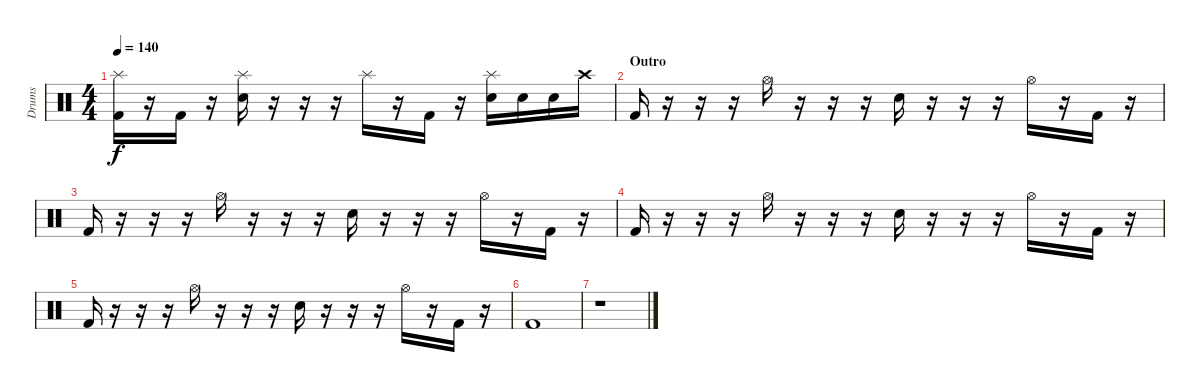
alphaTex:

\track ("Drums" "Drums") {instrument percussion}
\staff {score}
\articulation defaults
\ts (4 4)
\tempo 140
\clef neutral
\ks c
("Kick (hit) 2" "Splash (hit)").16{dy f} r.16 "Kick (hit) 2".16 r.16 ("Snare (hit) 2" "Splash (hit)").16 r.16 r.16 r.16 "Splash (hit)".16 r.16 "Kick (hit) 2".16 r.16 ("Snare (hit) 2" "Splash (hit)").16 "Snare (hit) 2".16 "Snare (hit) 2".16 "Crash high (hit)".16 |
\section ("" "Outro")
"Kick (hit) 2".16 r.16 r.16 r.16 "Hi-Hat (open)".16 r.16 r.16 r.16 "Electric Snare (hit)".16 r.16 r.16 r.16 "Hi-Hat (open)".16 r.16 "Kick (hit) 2".16 r.16 |
"Kick (hit) 2".16 r.16 r.16 r.16 "Hi-Hat (open)".16 r.16 r.16 r.16 "Electric Snare (hit)".16 r.16 r.16 r.16 "Hi-Hat (open)".16 r.16 "Kick (hit) 2".16 r.16 |
"Kick (hit) 2".16 r.16 r.16 r.16 "Hi-Hat (open)".16 r.16 r.16 r.16 "Electric Snare (hit)".16 r.16 r.16 r.16 "Hi-Hat (open)".16 r.16 "Kick (hit) 2".16 r.16 |
"Kick (hit) 2".16 r.16 r.16 r.16 "Hi-Hat (open)".16 r.16 r.16 r.16 "Electric Snare (hit)".16 r.16 r.16 r.16 "Hi-Hat (open)".16 r.16 "Kick (hit) 2".16 r.16 |
"Kick (hit) 2".1 |
r.1
